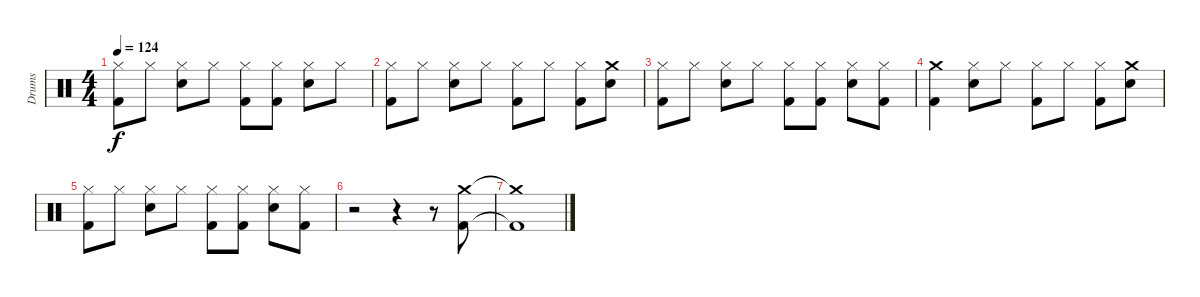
\track ("Drums" "Drums") {instrument percussion}
\staff {score}
\articulation defaults
\ts (4 4)
\tempo 124
\clef neutral
\ks c
("Hi-Hat (closed)" "Kick (hit) 2").8{dy f} "Hi-Hat (closed)".8 ("Snare (hit) 2" "Hi-Hat (closed)").8 "Hi-Hat (closed)".8 ("Kick (hit) 2" "Hi-Hat (closed)").8 ("Kick (hit) 2" "Hi-Hat (closed)").8 ("Snare (hit) 2" "Hi-Hat (closed)").8 "Hi-Hat (closed)".8 |
("Hi-Hat (closed)" "Kick (hit) 2").8 "Hi-Hat (closed)".8 ("Snare (hit) 2" "Hi-Hat (closed)").8 "Hi-Hat (closed)".8 ("Hi-Hat (closed)" "Kick (hit) 2").8 "Hi-Hat (closed)".8 ("Hi-Hat (closed)" "Kick (hit) 2").8 ("Crash medium (hit)" "Snare (hit) 2").8 |
("Hi-Hat (closed)" "Kick (hit) 2").8 "Hi-Hat (closed)".8 ("Snare (hit) 2" "Hi-Hat (closed)").8 "Hi-Hat (closed)".8 ("Kick (hit) 2" "Hi-Hat (closed)").8 ("Kick (hit) 2" "Hi-Hat (closed)").8 ("Snare (hit) 2" "Hi-Hat (closed)").8 ("Kick (hit) 2" "Hi-Hat (closed)").8 |
("Kick (hit) 2" "Crash medium (hit)").4 ("Hi-Hat (closed)" "Snare (hit) 2").8 "Hi-Hat (closed)".8 ("Kick (hit) 2" "Hi-Hat (closed)").8 "Hi-Hat (closed)".8 ("Kick (hit) 2" "Hi-Hat (closed)").8 ("Crash medium (hit)" "Snare (hit) 2").8 |
("Kick (hit) 2" "Hi-Hat (closed)").8 "Hi-Hat (closed)".8 ("Snare (hit) 2" "Hi-Hat (closed)").8 "Hi-Hat (closed)".8 ("Kick (hit) 2" "Hi-Hat (closed)").8 ("Kick (hit) 2" "Hi-Hat (closed)").8 ("Snare (hit) 2" "Hi-Hat (closed)").8 ("Kick (hit) 2" "Hi-Hat (closed)").8 |
r.2 r.4 r.8 ("Kick (hit) 2" "Crash medium (hit)").8 |
("Kick (hit) 2"{t} "Crash medium (hit)"{t}).1
